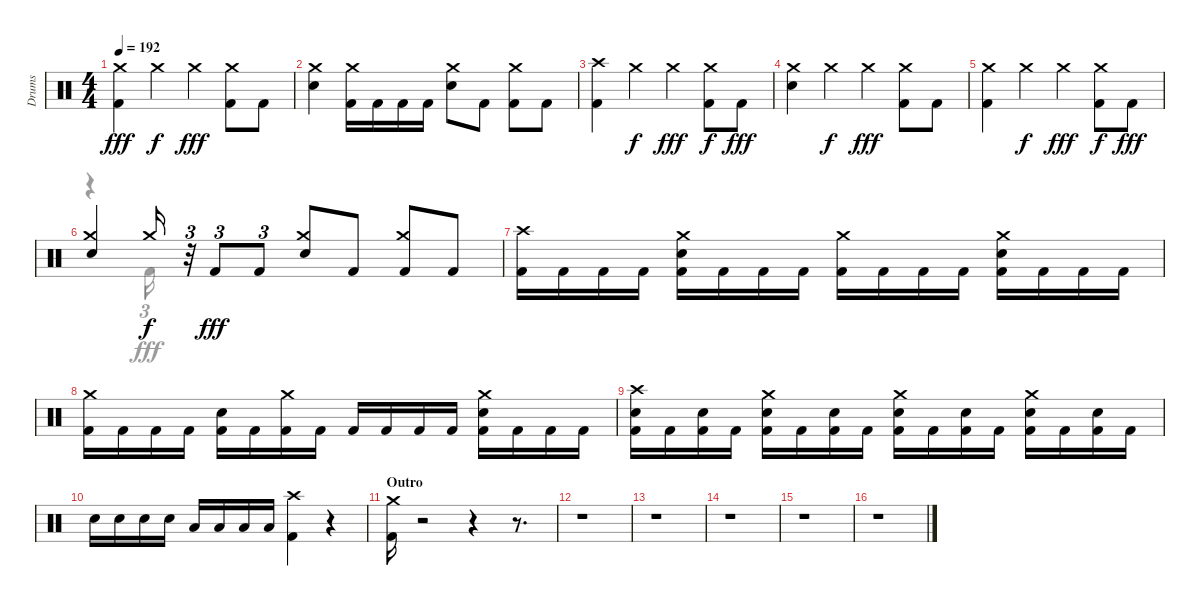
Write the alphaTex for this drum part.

\track ("Drums" "Drums") {instrument percussion}
\staff {score}
\articulation defaults
\voice
\ts (4 4)
\tempo 192
\clef neutral
\ks aminor
("Crash medium (hit)" "Kick (hit) 2").4{dy fff} "Crash medium (hit)".4{dy f} "Crash medium (hit)".4{dy fff} ("Kick (hit) 2" "Crash medium (hit)").8 "Kick (hit) 2".8 |
("Crash medium (hit)" "Snare (hit) 2").4 ("Crash medium (hit)" "Kick (hit) 2").16 "Kick (hit) 2".16 "Kick (hit) 2".16 "Kick (hit) 2".16 ("Crash medium (hit)" "Snare (hit) 2").8 "Kick (hit) 2".8 ("Kick (hit) 2" "Crash medium (hit)").8 "Kick (hit) 2".8 |
("Kick (hit) 2" "Crash high (hit)").4 "Crash medium (hit)".4{dy f} "Crash medium (hit)".4{dy fff} ("Kick (hit) 2" "Crash medium (hit)").8{dy f} "Kick (hit) 2".8{dy fff} |
("Snare (hit) 2" "Crash medium (hit)").4 "Crash medium (hit)".4{dy f} "Crash medium (hit)".4{dy fff} ("Kick (hit) 2" "Crash medium (hit)").8 "Kick (hit) 2".8 |
("Crash medium (hit)" "Kick (hit) 2").4 "Crash medium (hit)".4{dy f} "Crash medium (hit)".4{dy fff} ("Crash medium (hit)" "Kick (hit) 2").8{dy f} "Kick (hit) 2".8{dy fff} |
("Crash medium (hit)" "Snare (hit) 2").4 "Crash medium (hit)".16{dy f} r.32{tu (3 2)} "Kick (hit) 2".8{tu (3 2) dy fff} "Kick (hit) 2".8{tu (3 2)} ("Crash medium (hit)" "Snare (hit) 2").8 "Kick (hit) 2".8 ("Kick (hit) 2" "Crash medium (hit)").8 "Kick (hit) 2".8 |
("Kick (hit) 2" "Crash high (hit)").16 "Kick (hit) 2".16 "Kick (hit) 2".16 "Kick (hit) 2".16 ("Crash medium (hit)" "Snare (hit) 2" "Kick (hit) 2").16 "Kick (hit) 2".16 "Kick (hit) 2".16 "Kick (hit) 2".16 ("Crash medium (hit)" "Kick (hit) 2").16 "Kick (hit) 2".16 "Kick (hit) 2".16 "Kick (hit) 2".16 ("Crash medium (hit)" "Kick (hit) 2" "Snare (hit) 2").16 "Kick (hit) 2".16 "Kick (hit) 2".16 "Kick (hit) 2".16 |
("Crash medium (hit)" "Kick (hit) 2").16 "Kick (hit) 2".16 "Kick (hit) 2".16 "Kick (hit) 2".16 ("Kick (hit) 2" "Snare (hit) 2").16 "Kick (hit) 2".16 ("Kick (hit) 2" "Crash medium (hit)").16 "Kick (hit) 2".16 "Kick (hit) 2".16 "Kick (hit) 2".16 "Kick (hit) 2".16 "Kick (hit) 2".16 ("Kick (hit) 2" "Crash medium (hit)" "Snare (hit) 2").16 "Kick (hit) 2".16 "Kick (hit) 2".16 "Kick (hit) 2".16 |
("Kick (hit) 2" "Snare (hit) 2" "Crash high (hit)").16 "Kick (hit) 2".16 ("Snare (hit) 2" "Kick (hit) 2").16 "Kick (hit) 2".16 ("Kick (hit) 2" "Crash medium (hit)" "Snare (hit) 2").16 "Kick (hit) 2".16 ("Kick (hit) 2" "Snare (hit) 2").16 "Kick (hit) 2".16 ("Kick (hit) 2" "Snare (hit) 2" "Crash medium (hit)").16 "Kick (hit) 2".16 ("Snare (hit) 2" "Kick (hit) 2").16 "Kick (hit) 2".16 ("Snare (hit) 2" "Kick (hit) 2" "Crash medium (hit)").16 "Kick (hit) 2".16 ("Kick (hit) 2" "Snare (hit) 2").16 "Kick (hit) 2".16 |
"Snare (hit) 2".16 "Snare (hit) 2".16 "Snare (hit) 2".16 "Snare (hit) 2".16 "Low Tom (hit)".16 "Low Tom (hit)".16 "Low Tom (hit)".16 "Low Tom (hit)".16 ("Crash high (hit)" "Kick (hit) 2").4 r.4 |
\section ("" "Outro")
("Kick (hit) 2" "Crash medium (hit)").16 r.2 r.4 r.8{d} |
r.1 |
r.1 |
r.1 |
r.1 |
r.1
\voice
\clef neutral
\ottava regular
\simile none
\ks aminor
|
|
|
|
|
r.4 "Kick (hit) 2".16{tu (3 2)} |
|
|
|
|
|
|
|
|
|
